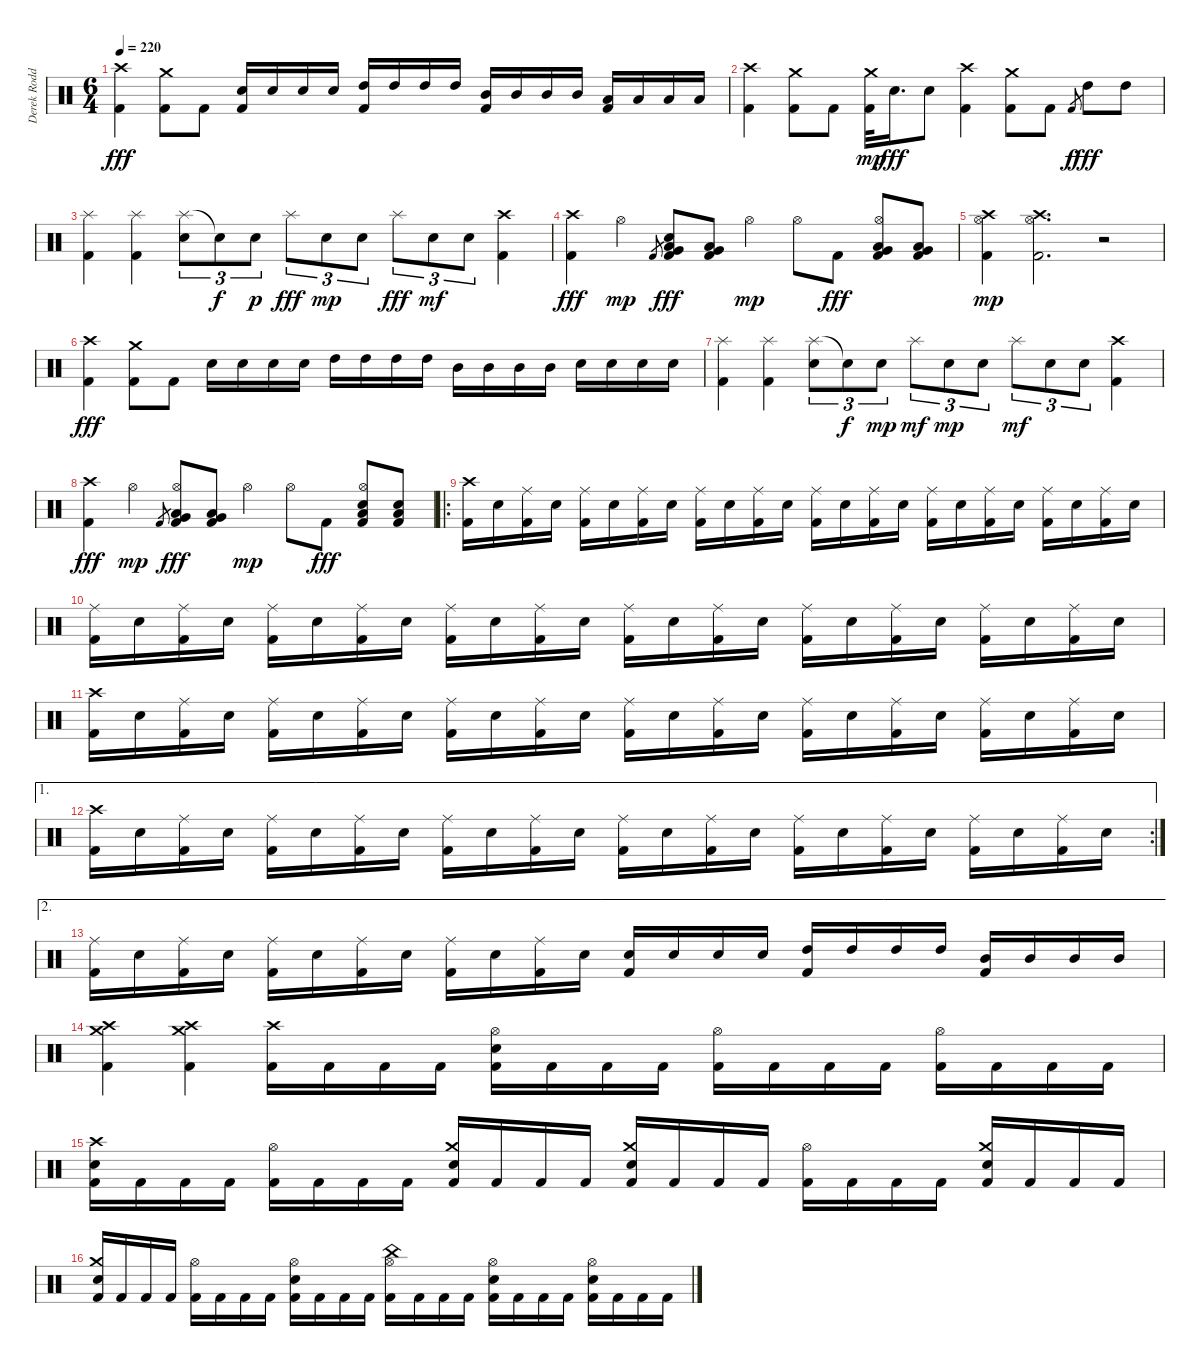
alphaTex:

\track ("Derek Roddy" "Derek Rodd") {instrument percussion}
\staff {score}
\articulation defaults
\ts (6 4)
\tempo 220
\clef neutral
\ks c
("Crash high (hit)" "Kick (hit) 2").4{dy fff} ("Crash medium (hit)" "Kick (hit) 2").8 "Kick (hit) 2".8 ("Snare (hit) 2" "Kick (hit) 2").16 "Snare (hit) 2".16 "Snare (hit) 2".16 "Snare (hit) 2".16 ("High Tom (hit)" "Kick (hit) 2").16 "High Tom (hit)".16 "High Tom (hit)".16 "High Tom (hit)".16 ("Mid Tom (hit)" "Kick (hit) 2").16 "Mid Tom (hit)".16 "Mid Tom (hit)".16 "Mid Tom (hit)".16 ("Low Tom (hit)" "Kick (hit) 2").16 "Low Tom (hit)".16 "Low Tom (hit)".16 "Low Tom (hit)".16 |
("Crash high (hit)" "Kick (hit) 2").4 ("Crash medium (hit)" "Kick (hit) 2").8 "Kick (hit) 2".8 ("Crash medium (hit)" "Kick (hit) 2").32{dy mp} "Snare (hit) 2".16{d dy fff} "Snare (hit) 2".8 ("Crash high (hit)" "Kick (hit) 2").4 ("Crash medium (hit)" "Kick (hit) 2").8 "Kick (hit) 2".8 "Kick (hit) 2".8{gr dy f} "High Tom (hit)".8{dy fff} "High Tom (hit)".8 |
("Splash (hit)" "Kick (hit) 2").4 ("Splash (hit)" "Kick (hit) 2").4 ("Splash (hit)" "Snare (hit) 2").8{tu (3 2)} "Snare (hit) 2"{t}.8{tu (3 2) dy f} "Snare (hit) 2".8{tu (3 2) dy p} "Splash (hit)".8{tu (3 2) dy fff} "Snare (hit) 2".8{tu (3 2) dy mp} "Snare (hit) 2".8{tu (3 2)} "Splash (hit)".8{tu (3 2) dy fff} "Snare (hit) 2".8{tu (3 2) dy mf} "Snare (hit) 2".8{tu (3 2)} ("Crash high (hit)" "Kick (hit) 2").4 |
("Crash high (hit)" "Kick (hit) 2").4{dy fff} "Hi-Hat (open)".4{dy mp} "Kick (hit) 2".8{gr} ("Snare (hit)" "Very Low Tom (hit)" "Low Floor Tom (hit)" "Kick (hit) 2").8{dy fff} ("Very Low Tom (hit)" "Low Floor Tom (hit)" "Kick (hit) 2").8 "Hi-Hat (open)".4{dy mp} "Hi-Hat (open)".8 "Kick (hit) 2".8{dy fff} ("Hi-Hat (open)" "Very Low Tom (hit)" "Low Floor Tom (hit)" "Kick (hit) 2").8 ("Very Low Tom (hit)" "Low Floor Tom (hit)" "Kick (hit) 2").8 |
("Hi-Hat (open)" "Kick (hit) 2" "Crash high (hit)").4{dy mp} ("Hi-Hat (open)" "Kick (hit) 2" "Crash high (hit)").2{d} r.2 |
("Crash high (hit)" "Kick (hit) 2").4{dy fff} ("Crash medium (hit)" "Kick (hit) 2").8 "Kick (hit) 2".8 "Snare (hit) 2".16 "Snare (hit) 2".16 "Snare (hit) 2".16 "Snare (hit) 2".16 "High Tom (hit)".16 "High Tom (hit)".16 "High Tom (hit)".16 "High Tom (hit)".16 "Mid Tom (hit)".16 "Mid Tom (hit)".16 "Mid Tom (hit)".16 "Mid Tom (hit)".16 "Snare (hit) 2".16 "Snare (hit) 2".16 "Snare (hit) 2".16 "Snare (hit) 2".16 |
("Splash (hit)" "Kick (hit) 2").4 ("Splash (hit)" "Kick (hit) 2").4 ("Splash (hit)" "Snare (hit) 2").8{tu (3 2)} "Snare (hit) 2"{t}.8{tu (3 2) dy f} "Snare (hit) 2".8{tu (3 2) dy mp} "Splash (hit)".8{tu (3 2) dy mf} "Snare (hit) 2".8{tu (3 2) dy mp} "Snare (hit) 2".8{tu (3 2)} "Splash (hit)".8{tu (3 2) dy mf} "Snare (hit) 2".8{tu (3 2)} "Snare (hit) 2".8{tu (3 2)} ("Crash high (hit)" "Kick (hit) 2").4 |
("Crash high (hit)" "Kick (hit) 2").4{dy fff} "Hi-Hat (open)".4{dy mp} "Kick (hit) 2".8{gr} ("Hi-Hat (open)" "Very Low Tom (hit)" "Low Floor Tom (hit)" "Kick (hit) 2").8{dy fff} ("Very Low Tom (hit)" "Low Floor Tom (hit)" "Kick (hit) 2").8 "Hi-Hat (open)".4{dy mp} "Hi-Hat (open)".8 "Kick (hit) 2".8{dy fff} ("Hi-Hat (open)" "Snare (hit) 2" "Low Floor Tom (hit)" "Kick (hit) 2").8 ("Snare (hit) 2" "Low Floor Tom (hit)" "Kick (hit) 2").8 |
\ro
("Crash high (hit)" "Kick (hit) 2").16 "Snare (hit) 2".16 ("Ride (middle)" "Kick (hit) 2").16 "Snare (hit) 2".16 ("Ride (middle)" "Kick (hit) 2").16 "Snare (hit) 2".16 ("Ride (middle)" "Kick (hit) 2").16 "Snare (hit) 2".16 ("Ride (middle)" "Kick (hit) 2").16 "Snare (hit) 2".16 ("Ride (middle)" "Kick (hit) 2").16 "Snare (hit) 2".16 ("Ride (middle)" "Kick (hit) 2").16 "Snare (hit) 2".16 ("Ride (middle)" "Kick (hit) 2").16 "Snare (hit) 2".16 ("Ride (middle)" "Kick (hit) 2").16 "Snare (hit) 2".16 ("Ride (middle)" "Kick (hit) 2").16 "Snare (hit) 2".16 ("Ride (middle)" "Kick (hit) 2").16 "Snare (hit) 2".16 ("Ride (middle)" "Kick (hit) 2").16 "Snare (hit) 2".16 |
("Ride (middle)" "Kick (hit) 2").16 "Snare (hit) 2".16 ("Ride (middle)" "Kick (hit) 2").16 "Snare (hit) 2".16 ("Ride (middle)" "Kick (hit) 2").16 "Snare (hit) 2".16 ("Ride (middle)" "Kick (hit) 2").16 "Snare (hit) 2".16 ("Ride (middle)" "Kick (hit) 2").16 "Snare (hit) 2".16 ("Ride (middle)" "Kick (hit) 2").16 "Snare (hit) 2".16 ("Ride (middle)" "Kick (hit) 2").16 "Snare (hit) 2".16 ("Ride (middle)" "Kick (hit) 2").16 "Snare (hit) 2".16 ("Ride (middle)" "Kick (hit) 2").16 "Snare (hit) 2".16 ("Ride (middle)" "Kick (hit) 2").16 "Snare (hit) 2".16 ("Ride (middle)" "Kick (hit) 2").16 "Snare (hit) 2".16 ("Ride (middle)" "Kick (hit) 2").16 "Snare (hit) 2".16 |
("Crash high (hit)" "Kick (hit) 2").16 "Snare (hit) 2".16 ("Ride (middle)" "Kick (hit) 2").16 "Snare (hit) 2".16 ("Ride (middle)" "Kick (hit) 2").16 "Snare (hit) 2".16 ("Ride (middle)" "Kick (hit) 2").16 "Snare (hit) 2".16 ("Ride (middle)" "Kick (hit) 2").16 "Snare (hit) 2".16 ("Ride (middle)" "Kick (hit) 2").16 "Snare (hit) 2".16 ("Ride (middle)" "Kick (hit) 2").16 "Snare (hit) 2".16 ("Ride (middle)" "Kick (hit) 2").16 "Snare (hit) 2".16 ("Ride (middle)" "Kick (hit) 2").16 "Snare (hit) 2".16 ("Ride (middle)" "Kick (hit) 2").16 "Snare (hit) 2".16 ("Ride (middle)" "Kick (hit) 2").16 "Snare (hit) 2".16 ("Ride (middle)" "Kick (hit) 2").16 "Snare (hit) 2".16 |
\ae 1
\rc 2
("Crash high (hit)" "Kick (hit) 2").16 "Snare (hit) 2".16 ("Ride (middle)" "Kick (hit) 2").16 "Snare (hit) 2".16 ("Ride (middle)" "Kick (hit) 2").16 "Snare (hit) 2".16 ("Ride (middle)" "Kick (hit) 2").16 "Snare (hit) 2".16 ("Ride (middle)" "Kick (hit) 2").16 "Snare (hit) 2".16 ("Ride (middle)" "Kick (hit) 2").16 "Snare (hit) 2".16 ("Ride (middle)" "Kick (hit) 2").16 "Snare (hit) 2".16 ("Ride (middle)" "Kick (hit) 2").16 "Snare (hit) 2".16 ("Ride (middle)" "Kick (hit) 2").16 "Snare (hit) 2".16 ("Ride (middle)" "Kick (hit) 2").16 "Snare (hit) 2".16 ("Ride (middle)" "Kick (hit) 2").16 "Snare (hit) 2".16 ("Ride (middle)" "Kick (hit) 2").16 "Snare (hit) 2".16 |
\ae 2
("Ride (middle)" "Kick (hit) 2").16 "Snare (hit) 2".16 ("Ride (middle)" "Kick (hit) 2").16 "Snare (hit) 2".16 ("Ride (middle)" "Kick (hit) 2").16 "Snare (hit) 2".16 ("Ride (middle)" "Kick (hit) 2").16 "Snare (hit) 2".16 ("Ride (middle)" "Kick (hit) 2").16 "Snare (hit) 2".16 ("Ride (middle)" "Kick (hit) 2").16 "Snare (hit) 2".16 ("Snare (hit) 2" "Kick (hit) 2").16 "Snare (hit) 2".16 "Snare (hit) 2".16 "Snare (hit) 2".16 ("High Tom (hit)" "Kick (hit) 2").16 "High Tom (hit)".16 "High Tom (hit)".16 "High Tom (hit)".16 ("Mid Tom (hit)" "Kick (hit) 2").16 "Mid Tom (hit)".16 "Mid Tom (hit)".16 "Mid Tom (hit)".16 |
("Crash high (hit)" "Crash medium (hit)" "Kick (hit) 2").4 ("Crash high (hit)" "Crash medium (hit)" "Kick (hit) 2").4 ("Crash high (hit)" "Kick (hit) 2").16 "Kick (hit) 2".16 "Kick (hit) 2".16 "Kick (hit) 2".16 ("Hi-Hat (open)" "Snare (hit) 2" "Kick (hit) 2").16 "Kick (hit) 2".16 "Kick (hit) 2".16 "Kick (hit) 2".16 ("Hi-Hat (open)" "Kick (hit) 2").16 "Kick (hit) 2".16 "Kick (hit) 2".16 "Kick (hit) 2".16 ("Hi-Hat (open)" "Kick (hit) 2").16 "Kick (hit) 2".16 "Kick (hit) 2".16 "Kick (hit) 2".16 |
("Crash high (hit)" "Snare (hit) 2" "Kick (hit) 2").16 "Kick (hit) 2".16 "Kick (hit) 2".16 "Kick (hit) 2".16 ("Hi-Hat (open)" "Kick (hit) 2").16 "Kick (hit) 2".16 "Kick (hit) 2".16 "Kick (hit) 2".16 ("Crash medium (hit)" "Snare (hit) 2" "Kick (hit) 2").16 "Kick (hit) 2".16 "Kick (hit) 2".16 "Kick (hit) 2".16 ("Crash medium (hit)" "Snare (hit) 2" "Kick (hit) 2").16 "Kick (hit) 2".16 "Kick (hit) 2".16 "Kick (hit) 2".16 ("Hi-Hat (open)" "Kick (hit) 2").16 "Kick (hit) 2".16 "Kick (hit) 2".16 "Kick (hit) 2".16 ("Crash medium (hit)" "Snare (hit) 2" "Kick (hit) 2").16 "Kick (hit) 2".16 "Kick (hit) 2".16 "Kick (hit) 2".16 |
("Crash medium (hit)" "Snare (hit) 2" "Kick (hit) 2").16 "Kick (hit) 2".16 "Kick (hit) 2".16 "Kick (hit) 2".16 ("Hi-Hat (open)" "Kick (hit) 2").16 "Kick (hit) 2".16 "Kick (hit) 2".16 "Kick (hit) 2".16 ("Hi-Hat (open)" "Snare (hit) 2" "Kick (hit) 2").16 "Kick (hit) 2".16 "Kick (hit) 2".16 "Kick (hit) 2".16 ("Hi-Hat (open)" "China (hit)" "Kick (hit) 2").16 "Kick (hit) 2".16 "Kick (hit) 2".16 "Kick (hit) 2".16 ("Hi-Hat (open)" "Snare (hit) 2" "Kick (hit) 2").16 "Kick (hit) 2".16 "Kick (hit) 2".16 "Kick (hit) 2".16 ("Hi-Hat (open)" "Snare (hit) 2" "Kick (hit) 2").16 "Kick (hit) 2".16 "Kick (hit) 2".16 "Kick (hit) 2".16
